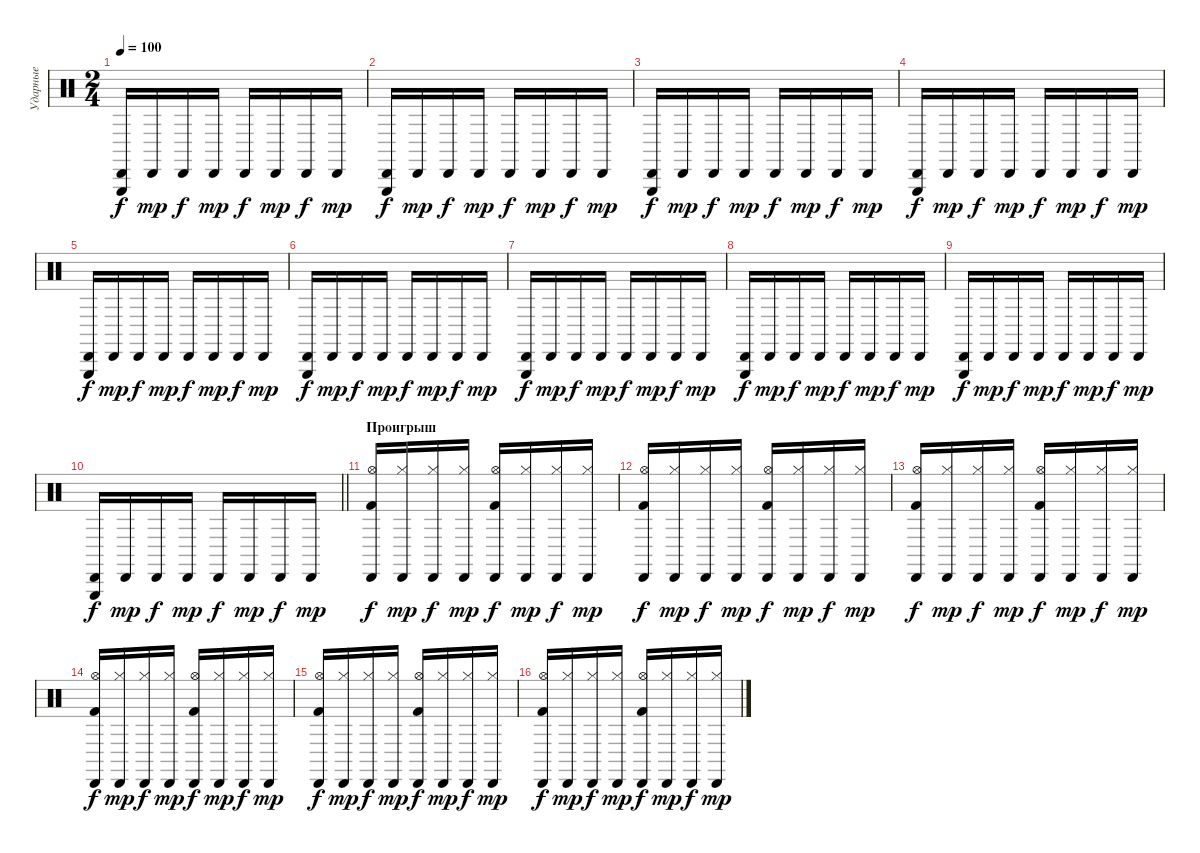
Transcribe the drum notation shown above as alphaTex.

\track ("Ударные" "Ударные") {instrument percussion}
\staff {score}
\articulation defaults
\ts (2 4)
\tempo 100
\clef neutral
\ks c
("Triangle (hit)" "Cabasa (hit)").16{dy f} "Cabasa (hit)".16{dy mp} "Cabasa (hit)".16{dy f} "Cabasa (hit)".16{dy mp} "Cabasa (hit)".16{dy f} "Cabasa (hit)".16{dy mp} "Cabasa (hit)".16{dy f} "Cabasa (hit)".16{dy mp} |
("Triangle (hit)" "Cabasa (hit)").16{dy f} "Cabasa (hit)".16{dy mp} "Cabasa (hit)".16{dy f} "Cabasa (hit)".16{dy mp} "Cabasa (hit)".16{dy f} "Cabasa (hit)".16{dy mp} "Cabasa (hit)".16{dy f} "Cabasa (hit)".16{dy mp} |
("Triangle (hit)" "Cabasa (hit)").16{dy f} "Cabasa (hit)".16{dy mp} "Cabasa (hit)".16{dy f} "Cabasa (hit)".16{dy mp} "Cabasa (hit)".16{dy f} "Cabasa (hit)".16{dy mp} "Cabasa (hit)".16{dy f} "Cabasa (hit)".16{dy mp} |
("Triangle (hit)" "Cabasa (hit)").16{dy f} "Cabasa (hit)".16{dy mp} "Cabasa (hit)".16{dy f} "Cabasa (hit)".16{dy mp} "Cabasa (hit)".16{dy f} "Cabasa (hit)".16{dy mp} "Cabasa (hit)".16{dy f} "Cabasa (hit)".16{dy mp} |
("Triangle (hit)" "Cabasa (hit)").16{dy f} "Cabasa (hit)".16{dy mp} "Cabasa (hit)".16{dy f} "Cabasa (hit)".16{dy mp} "Cabasa (hit)".16{dy f} "Cabasa (hit)".16{dy mp} "Cabasa (hit)".16{dy f} "Cabasa (hit)".16{dy mp} |
("Triangle (hit)" "Cabasa (hit)").16{dy f} "Cabasa (hit)".16{dy mp} "Cabasa (hit)".16{dy f} "Cabasa (hit)".16{dy mp} "Cabasa (hit)".16{dy f} "Cabasa (hit)".16{dy mp} "Cabasa (hit)".16{dy f} "Cabasa (hit)".16{dy mp} |
("Triangle (hit)" "Cabasa (hit)").16{dy f} "Cabasa (hit)".16{dy mp} "Cabasa (hit)".16{dy f} "Cabasa (hit)".16{dy mp} "Cabasa (hit)".16{dy f} "Cabasa (hit)".16{dy mp} "Cabasa (hit)".16{dy f} "Cabasa (hit)".16{dy mp} |
("Triangle (hit)" "Cabasa (hit)").16{dy f} "Cabasa (hit)".16{dy mp} "Cabasa (hit)".16{dy f} "Cabasa (hit)".16{dy mp} "Cabasa (hit)".16{dy f} "Cabasa (hit)".16{dy mp} "Cabasa (hit)".16{dy f} "Cabasa (hit)".16{dy mp} |
("Triangle (hit)" "Cabasa (hit)").16{dy f} "Cabasa (hit)".16{dy mp} "Cabasa (hit)".16{dy f} "Cabasa (hit)".16{dy mp} "Cabasa (hit)".16{dy f} "Cabasa (hit)".16{dy mp} "Cabasa (hit)".16{dy f} "Cabasa (hit)".16{dy mp} |
\barLineRight lightlight
("Triangle (hit)" "Cabasa (hit)").16{dy f} "Cabasa (hit)".16{dy mp} "Cabasa (hit)".16{dy f} "Cabasa (hit)".16{dy mp} "Cabasa (hit)".16{dy f} "Cabasa (hit)".16{dy mp} "Cabasa (hit)".16{dy f} "Cabasa (hit)".16{dy mp} |
\section ("" "Проигрыш")
("Kick (hit) 2" "Cabasa (hit)" "Hi-Hat (open)").16{dy f} ("Cabasa (hit)" "Hi-Hat (closed)").16{dy mp} ("Hi-Hat (closed)" "Cabasa (hit)").16{dy f} ("Cabasa (hit)" "Hi-Hat (closed)").16{dy mp} ("Hi-Hat (open)" "Cabasa (hit)" "Kick (hit) 2").16{dy f} ("Hi-Hat (closed)" "Cabasa (hit)").16{dy mp} ("Hi-Hat (closed)" "Cabasa (hit)").16{dy f} ("Hi-Hat (closed)" "Cabasa (hit)").16{dy mp} |
("Kick (hit) 2" "Cabasa (hit)" "Hi-Hat (open)").16{dy f} ("Cabasa (hit)" "Hi-Hat (closed)").16{dy mp} ("Hi-Hat (closed)" "Cabasa (hit)").16{dy f} ("Cabasa (hit)" "Hi-Hat (closed)").16{dy mp} ("Hi-Hat (open)" "Cabasa (hit)" "Kick (hit) 2").16{dy f} ("Hi-Hat (closed)" "Cabasa (hit)").16{dy mp} ("Hi-Hat (closed)" "Cabasa (hit)").16{dy f} ("Hi-Hat (closed)" "Cabasa (hit)").16{dy mp} |
("Kick (hit) 2" "Cabasa (hit)" "Hi-Hat (open)").16{dy f} ("Cabasa (hit)" "Hi-Hat (closed)").16{dy mp} ("Hi-Hat (closed)" "Cabasa (hit)").16{dy f} ("Cabasa (hit)" "Hi-Hat (closed)").16{dy mp} ("Hi-Hat (open)" "Cabasa (hit)" "Kick (hit) 2").16{dy f} ("Hi-Hat (closed)" "Cabasa (hit)").16{dy mp} ("Hi-Hat (closed)" "Cabasa (hit)").16{dy f} ("Hi-Hat (closed)" "Cabasa (hit)").16{dy mp} |
("Kick (hit) 2" "Cabasa (hit)" "Hi-Hat (open)").16{dy f} ("Cabasa (hit)" "Hi-Hat (closed)").16{dy mp} ("Hi-Hat (closed)" "Cabasa (hit)").16{dy f} ("Cabasa (hit)" "Hi-Hat (closed)").16{dy mp} ("Hi-Hat (open)" "Cabasa (hit)" "Kick (hit) 2").16{dy f} ("Hi-Hat (closed)" "Cabasa (hit)").16{dy mp} ("Hi-Hat (closed)" "Cabasa (hit)").16{dy f} ("Hi-Hat (closed)" "Cabasa (hit)").16{dy mp} |
("Kick (hit) 2" "Cabasa (hit)" "Hi-Hat (open)").16{dy f} ("Cabasa (hit)" "Hi-Hat (closed)").16{dy mp} ("Hi-Hat (closed)" "Cabasa (hit)").16{dy f} ("Cabasa (hit)" "Hi-Hat (closed)").16{dy mp} ("Hi-Hat (open)" "Cabasa (hit)" "Kick (hit) 2").16{dy f} ("Hi-Hat (closed)" "Cabasa (hit)").16{dy mp} ("Hi-Hat (closed)" "Cabasa (hit)").16{dy f} ("Hi-Hat (closed)" "Cabasa (hit)").16{dy mp} |
("Kick (hit) 2" "Cabasa (hit)" "Hi-Hat (open)").16{dy f} ("Cabasa (hit)" "Hi-Hat (closed)").16{dy mp} ("Hi-Hat (closed)" "Cabasa (hit)").16{dy f} ("Cabasa (hit)" "Hi-Hat (closed)").16{dy mp} ("Hi-Hat (open)" "Cabasa (hit)" "Kick (hit) 2").16{dy f} ("Hi-Hat (closed)" "Cabasa (hit)").16{dy mp} ("Hi-Hat (closed)" "Cabasa (hit)").16{dy f} ("Hi-Hat (closed)" "Cabasa (hit)").16{dy mp}
